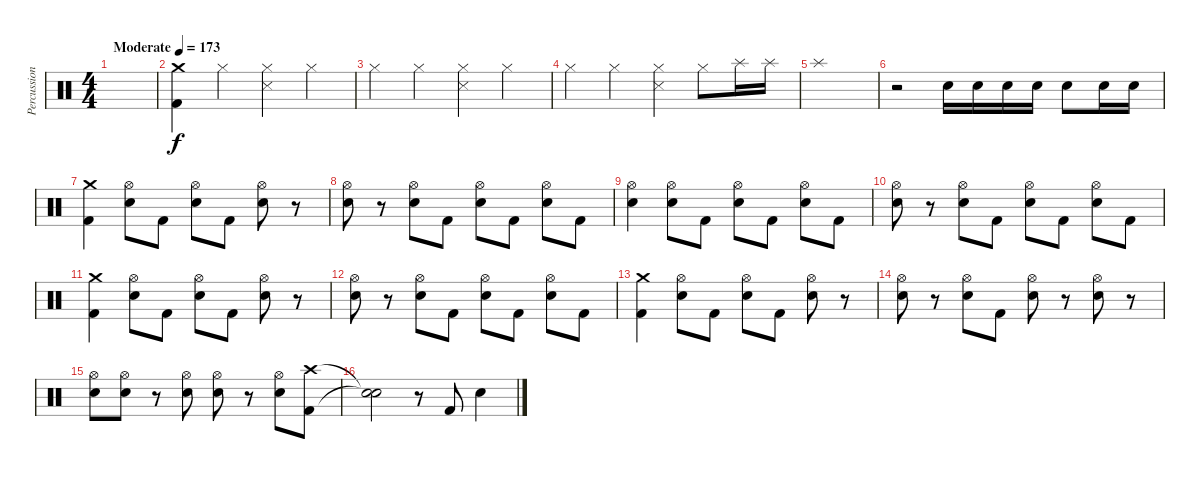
\track ("Percussion" "Percussion") {instrument percussion}
\staff {score}
\articulation defaults
\ts (4 4)
\tempo (173 "Moderate")
\clef neutral
\ks c
|
("Crash medium (hit)" "Kick (hit) 2").4 "Hi-Hat (closed)".4 ("Hi-Hat (closed)" "Snare (side stick) 3").4 "Hi-Hat (closed)".4 |
"Hi-Hat (closed)".4 "Hi-Hat (closed)".4 ("Hi-Hat (closed)" "Snare (side stick) 3").4 "Hi-Hat (closed)".4 |
"Hi-Hat (closed)".4 "Hi-Hat (closed)".4 ("Hi-Hat (closed)" "Snare (side stick) 3").4 "Hi-Hat (closed)".8 "Splash (hit)".16 "Splash (hit)".16 |
"Splash (hit)".1 |
r.2 "Electric Snare (hit)".16 "Electric Snare (hit)".16 "Electric Snare (hit)".16 "Electric Snare (hit)".16 "Electric Snare (hit)".8 "Electric Snare (hit)".16 "Electric Snare (hit)".16 |
("Crash medium (hit)" "Kick (hit) 2").4 ("Hi-Hat (open)" "Electric Snare (hit)").8 "Kick (hit) 2".8 ("Hi-Hat (open)" "Electric Snare (hit)").8 "Kick (hit) 2".8 ("Hi-Hat (open)" "Electric Snare (hit)").8 r.8 |
("Hi-Hat (open)" "Electric Snare (hit)").8 r.8 ("Hi-Hat (open)" "Electric Snare (hit)").8 "Kick (hit) 2".8 ("Hi-Hat (open)" "Electric Snare (hit)").8 "Kick (hit) 2".8 ("Hi-Hat (open)" "Electric Snare (hit)").8 "Kick (hit) 2".8 |
("Hi-Hat (open)" "Electric Snare (hit)").4 ("Hi-Hat (open)" "Electric Snare (hit)").8 "Kick (hit) 2".8 ("Hi-Hat (open)" "Electric Snare (hit)").8 "Kick (hit) 2".8 ("Hi-Hat (open)" "Electric Snare (hit)").8 "Kick (hit) 2".8 |
("Hi-Hat (open)" "Electric Snare (hit)").8 r.8 ("Hi-Hat (open)" "Electric Snare (hit)").8 "Kick (hit) 2".8 ("Hi-Hat (open)" "Electric Snare (hit)").8 "Kick (hit) 2".8 ("Hi-Hat (open)" "Electric Snare (hit)").8 "Kick (hit) 2".8 |
("Crash medium (hit)" "Kick (hit) 2").4 ("Hi-Hat (open)" "Electric Snare (hit)").8 "Kick (hit) 2".8 ("Hi-Hat (open)" "Electric Snare (hit)").8 "Kick (hit) 2".8 ("Hi-Hat (open)" "Electric Snare (hit)").8 r.8 |
("Hi-Hat (open)" "Electric Snare (hit)").8 r.8 ("Hi-Hat (open)" "Electric Snare (hit)").8 "Kick (hit) 2".8 ("Hi-Hat (open)" "Electric Snare (hit)").8 "Kick (hit) 2".8 ("Hi-Hat (open)" "Electric Snare (hit)").8 "Kick (hit) 2".8 |
("Crash medium (hit)" "Kick (hit) 2").4 ("Hi-Hat (open)" "Electric Snare (hit)").8 "Kick (hit) 2".8 ("Hi-Hat (open)" "Electric Snare (hit)").8 "Kick (hit) 2".8 ("Hi-Hat (open)" "Electric Snare (hit)").8 r.8 |
("Hi-Hat (open)" "Electric Snare (hit)").8 r.8 ("Hi-Hat (open)" "Electric Snare (hit)").8 "Kick (hit) 2".8 ("Hi-Hat (open)" "Electric Snare (hit)").8 r.8 ("Hi-Hat (open)" "Electric Snare (hit)").8 r.8 |
("Hi-Hat (open)" "Electric Snare (hit)").8 ("Hi-Hat (open)" "Electric Snare (hit)").8 r.8 ("Hi-Hat (open)" "Electric Snare (hit)").8 ("Hi-Hat (open)" "Electric Snare (hit)").8 r.8 ("Hi-Hat (open)" "Electric Snare (hit)").8 ("Crash high (hit)" "Kick (hit) 2").8 |
("Snare (hit)"{t} "Snare (hit)"{t}).2 r.8 "Kick (hit) 2".8 "Electric Snare (hit)".4
